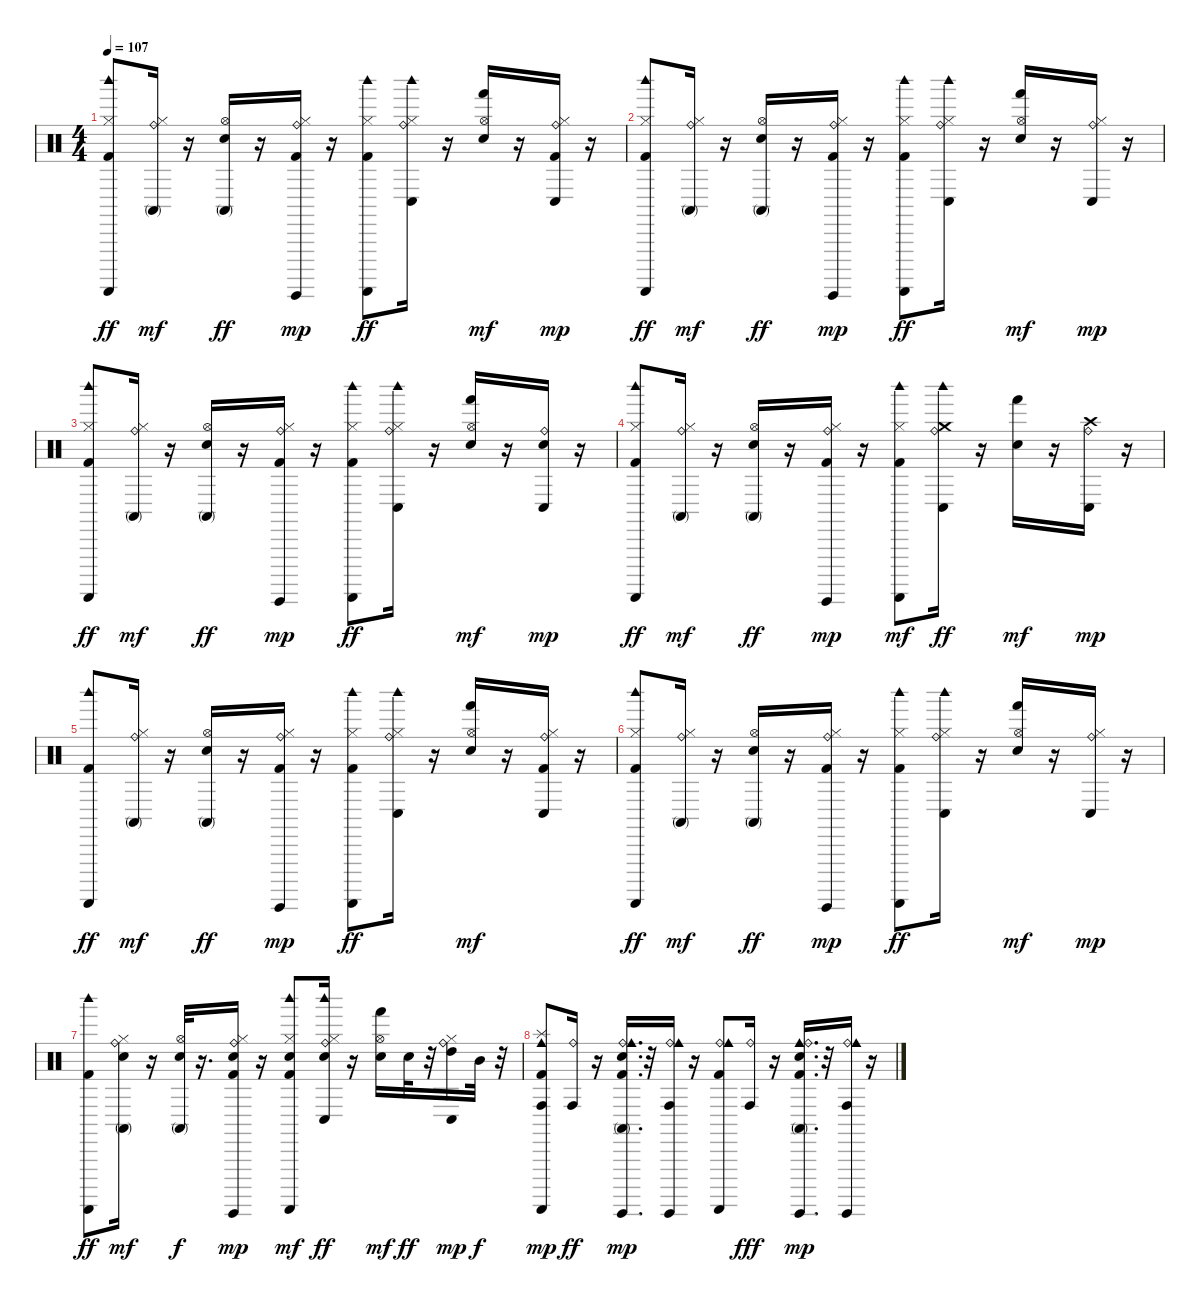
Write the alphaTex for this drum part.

\track "" {instrument percussion}
\staff {score}
\articulation defaults
\ts (4 4)
\tempo 107
\clef neutral
\ks c
("Kick (hit) 2" "Hi-Hat (closed)" "Guiro (scrap-return)" "Woodblock high (hit)").8{dy ff} ("Hi-Hat (closed)" "Ride (bell)" "Conga high (mute)").16{dy mf} r.16 ("Electric Snare (hit)" "Hi-Hat (open)" "Conga high (mute)").16{dy ff} r.16 ("Kick (hit) 2" "Hi-Hat (closed)" "Ride (bell)" "Guiro (hit)").16{dy mp} r.16 ("Kick (hit) 2" "Hi-Hat (closed)" "Guiro (scrap-return)" "Woodblock high (hit)").8{dy ff} ("Hi-Hat (closed)" "Ride (bell)" "Conga low (hit)" "Woodblock high (hit)").16 r.16 ("Electric Snare (hit)" "Hi-Hat (open)" "Hand (hit)").16{dy mf} r.16 ("Kick (hit) 2" "Hi-Hat (closed)" "Ride (bell)" "Conga low (hit)").16{dy mp} r.16 |
("Kick (hit) 2" "Hi-Hat (closed)" "Guiro (scrap-return)" "Woodblock high (hit)").8{dy ff} ("Hi-Hat (closed)" "Ride (bell)" "Conga high (mute)").16{dy mf} r.16 ("Electric Snare (hit)" "Hi-Hat (open)" "Conga high (mute)").16{dy ff} r.16 ("Kick (hit) 2" "Hi-Hat (closed)" "Ride (bell)" "Guiro (hit)").16{dy mp} r.16 ("Kick (hit) 2" "Hi-Hat (closed)" "Guiro (scrap-return)" "Woodblock high (hit)").8{dy ff} ("Hi-Hat (closed)" "Ride (bell)" "Conga low (hit)" "Woodblock high (hit)").16 r.16 ("Electric Snare (hit)" "Hi-Hat (open)" "Hand (hit)").16{dy mf} r.16 ("Hi-Hat (closed)" "Ride (bell)" "Conga low (hit)").16{dy mp} r.16 |
("Kick (hit) 2" "Hi-Hat (closed)" "Guiro (scrap-return)" "Woodblock high (hit)").8{dy ff} ("Hi-Hat (closed)" "Ride (bell)" "Conga high (mute)").16{dy mf} r.16 ("Electric Snare (hit)" "Hi-Hat (open)" "Conga high (mute)").16{dy ff} r.16 ("Kick (hit) 2" "Hi-Hat (closed)" "Ride (bell)" "Guiro (hit)").16{dy mp} r.16 ("Kick (hit) 2" "Hi-Hat (closed)" "Guiro (scrap-return)" "Woodblock high (hit)").8{dy ff} ("Ride (bell)" "Conga low (hit)" "Woodblock high (hit)" "Hi-Hat (closed)").16 r.16 ("Electric Snare (hit)" "Hi-Hat (open)" "Hand (hit)").16{dy mf} r.16 ("Electric Snare (hit)" "Ride (bell)" "Conga low (hit)").16{dy mp} r.16 |
("Kick (hit) 2" "Hi-Hat (closed)" "Guiro (scrap-return)" "Woodblock high (hit)").8{dy ff} ("Hi-Hat (closed)" "Ride (bell)" "Conga high (mute)").16{dy mf} r.16 ("Electric Snare (hit)" "Hi-Hat (open)" "Conga high (mute)").16{dy ff} r.16 ("Kick (hit) 2" "Hi-Hat (closed)" "Ride (bell)" "Guiro (hit)").16{dy mp} r.16 ("Kick (hit) 2" "Guiro (scrap-return)" "Woodblock high (hit)" "Hi-Hat (closed)").8{dy mf} ("Ride (bell)" "Crash medium (hit)" "Conga low (hit)" "Woodblock high (hit)").16{dy ff} r.16 ("Electric Snare (hit)" "Hand (hit)").16{dy mf} r.16 ("Crash high (hit)" "Ride (bell)" "Conga low (hit)").16{dy mp} r.16 |
("Kick (hit) 2" "Guiro (scrap-return)" "Woodblock high (hit)").8{dy ff} ("Hi-Hat (closed)" "Ride (bell)" "Conga high (mute)").16{dy mf} r.16 ("Electric Snare (hit)" "Conga high (mute)" "Hi-Hat (open)").16{dy ff} r.16 ("Kick (hit) 2" "Hi-Hat (closed)" "Ride (bell)" "Guiro (hit)").16{dy mp} r.16 ("Kick (hit) 2" "Hi-Hat (closed)" "Guiro (scrap-return)" "Woodblock high (hit)").8{dy ff} ("Hi-Hat (closed)" "Ride (bell)" "Conga low (hit)" "Woodblock high (hit)").16 r.16 ("Electric Snare (hit)" "Hi-Hat (open)" "Hand (hit)").16{dy mf} r.16 ("Kick (hit) 2" "Ride (bell)" "Hi-Hat (closed)" "Conga low (hit)").16 r.16 |
("Kick (hit) 2" "Guiro (scrap-return)" "Woodblock high (hit)" "Hi-Hat (closed)").8{dy ff} ("Hi-Hat (closed)" "Ride (bell)" "Conga high (mute)").16{dy mf} r.16 ("Electric Snare (hit)" "Hi-Hat (open)" "Conga high (mute)").16{dy ff} r.16 ("Kick (hit) 2" "Hi-Hat (closed)" "Ride (bell)" "Guiro (hit)").16{dy mp} r.16 ("Kick (hit) 2" "Hi-Hat (closed)" "Guiro (scrap-return)" "Woodblock high (hit)").8{dy ff} ("Hi-Hat (closed)" "Ride (bell)" "Conga low (hit)" "Woodblock high (hit)").16 r.16 ("Electric Snare (hit)" "Hi-Hat (open)" "Hand (hit)").16{dy mf} r.16 ("Hi-Hat (closed)" "Ride (bell)" "Conga low (hit)").16{dy mp} r.16 |
("Kick (hit) 2" "Guiro (scrap-return)" "Woodblock high (hit)").8{dy ff} ("Electric Snare (hit)" "Hi-Hat (closed)" "Ride (bell)" "Conga high (mute)").16{dy mf} r.16 ("Electric Snare (hit)" "Conga high (mute)" "Hi-Hat (open)").32{dy f} r.16{d} ("Kick (hit) 2" "Electric Snare (hit)" "Hi-Hat (closed)" "Ride (bell)" "Guiro (hit)").16{dy mp} r.16 ("Kick (hit) 2" "Electric Snare (hit)" "Guiro (scrap-return)" "Woodblock high (hit)" "Hi-Hat (closed)").8{dy mf} ("Electric Snare (hit)" "Hi-Hat (closed)" "Ride (bell)" "Conga low (hit)" "Woodblock high (hit)").16{dy ff} r.16 ("Electric Snare (hit)" "Hi-Hat (open)" "Hand (hit)").16{dy mf} "Electric Snare (hit)".32{dy ff} r.32 ("Hi-Hat (closed)" "High Tom (hit)" "Ride (bell)" "Conga low (hit)").16{dy mp} "Mid Tom (hit)".32{dy f} r.32 |
("Kick (hit) 2" "Splash (hit)" "Cowbell medium (hit)" "Conga high (hit)" "Guiro (scrap-return)").8{dy mp} ("Ride (bell)" "Conga high (hit)").16{dy ff} r.16 ("Kick (hit) 2" "Electric Snare (hit)" "Ride (bell)" "Cowbell medium (hit)" "Conga high (mute)" "Guiro (hit)").16{d dy mp} r.32 ("Ride (bell)" "Cowbell medium (hit)" "Conga high (hit)" "Guiro (hit)").16 r.16 ("Kick (hit) 2" "Ride (bell)" "Cowbell medium (hit)" "Guiro (scrap-return)").8 ("Ride (bell)" "Conga high (hit)").16{dy fff} r.16 ("Kick (hit) 2" "Electric Snare (hit)" "Cowbell medium (hit)" "Ride (bell)" "Conga high (mute)" "Guiro (hit)").16{d dy mp} r.32 ("Ride (bell)" "Cowbell medium (hit)" "Conga high (hit)" "Guiro (hit)").16 r.16
